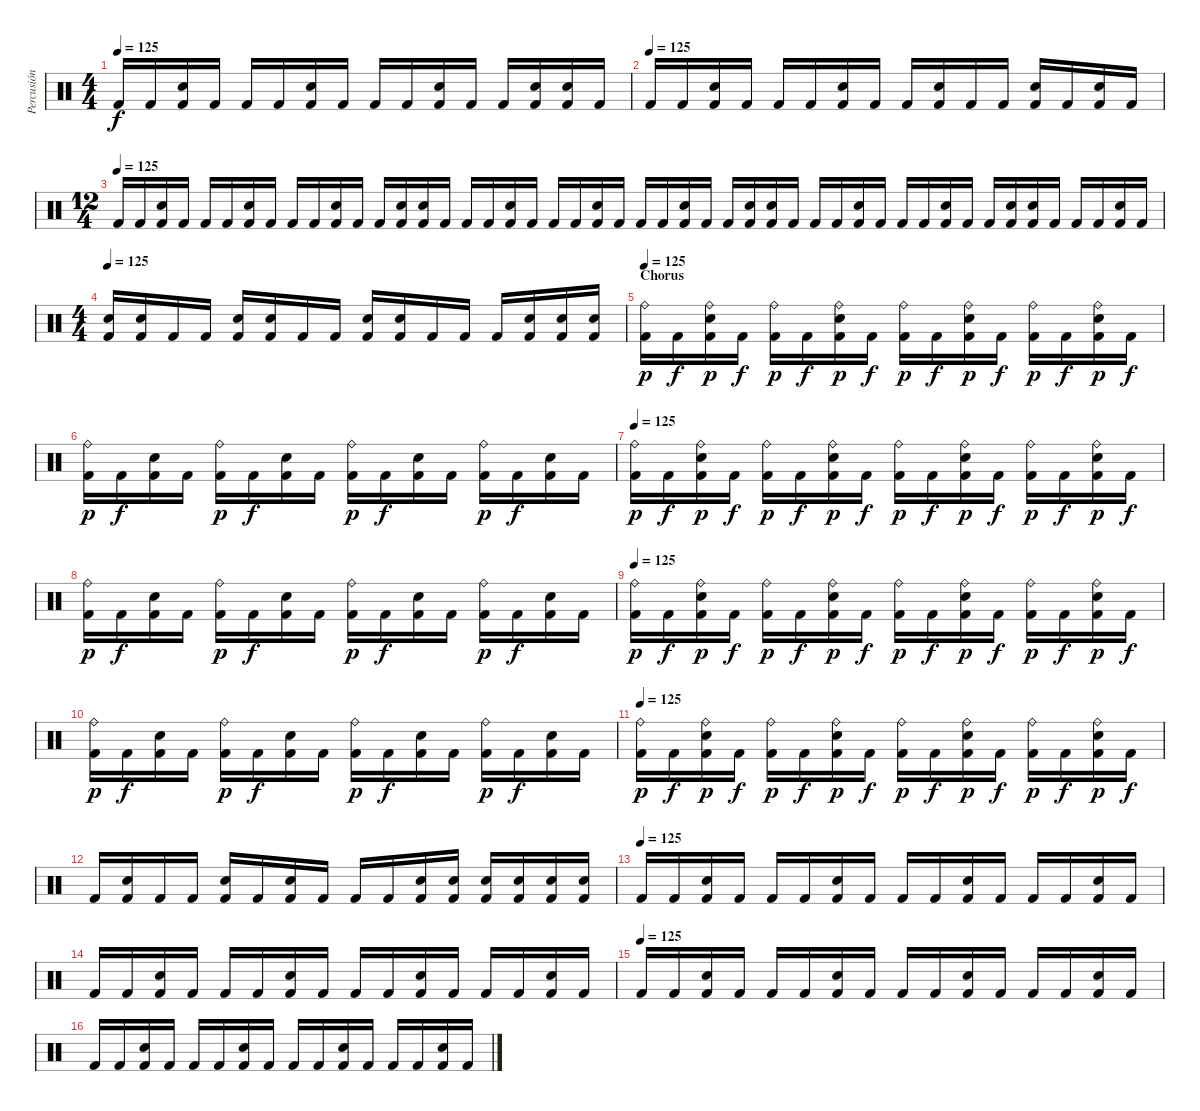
\track ("Percusión" "Percusión") {instrument percussion}
\staff {score}
\articulation defaults
\ts (4 4)
\tempo 125
\clef neutral
\ks c "Kick (hit) 2".16{dy f} "Kick (hit) 2".16
("Electric Snare (hit)" "Kick (hit) 2").16 "Kick (hit) 2".16 "Kick (hit) 2".16 "Kick (hit) 2".16 ("Electric Snare (hit)" "Kick (hit) 2").16 "Kick (hit) 2".16 "Kick (hit) 2".16 "Kick (hit) 2".16 ("Electric Snare (hit)" "Kick (hit) 2").16 "Kick (hit) 2".16 "Kick (hit) 2".16 ("Electric Snare (hit)" "Kick (hit) 2").16 ("Electric Snare (hit)" "Kick (hit) 2").16 "Kick (hit) 2".16 |
\tempo (125)
"Kick (hit) 2".16 "Kick (hit) 2".16 ("Electric Snare (hit)" "Kick (hit) 2").16 "Kick (hit) 2".16 "Kick (hit) 2".16 "Kick (hit) 2".16 ("Electric Snare (hit)" "Kick (hit) 2").16 "Kick (hit) 2".16 "Kick (hit) 2".16 ("Electric Snare (hit)" "Kick (hit) 2").16 "Kick (hit) 2".16 "Kick (hit) 2".16 ("Electric Snare (hit)" "Kick (hit) 2").16 "Kick (hit) 2".16 ("Electric Snare (hit)" "Kick (hit) 2").16 "Kick (hit) 2".16 |
\ts (12 4)
\tempo (125)
"Kick (hit) 2".16 "Kick (hit) 2".16 ("Electric Snare (hit)" "Kick (hit) 2").16 "Kick (hit) 2".16 "Kick (hit) 2".16 "Kick (hit) 2".16 ("Electric Snare (hit)" "Kick (hit) 2").16 "Kick (hit) 2".16 "Kick (hit) 2".16 "Kick (hit) 2".16 ("Electric Snare (hit)" "Kick (hit) 2").16 "Kick (hit) 2".16 "Kick (hit) 2".16 ("Electric Snare (hit)" "Kick (hit) 2").16 ("Electric Snare (hit)" "Kick (hit) 2").16 "Kick (hit) 2".16 "Kick (hit) 2".16 "Kick (hit) 2".16 ("Electric Snare (hit)" "Kick (hit) 2").16 "Kick (hit) 2".16 "Kick (hit) 2".16 "Kick (hit) 2".16 ("Electric Snare (hit)" "Kick (hit) 2").16 "Kick (hit) 2".16 "Kick (hit) 2".16 "Kick (hit) 2".16 ("Electric Snare (hit)" "Kick (hit) 2").16 "Kick (hit) 2".16 "Kick (hit) 2".16 ("Electric Snare (hit)" "Kick (hit) 2").16 ("Electric Snare (hit)" "Kick (hit) 2").16 "Kick (hit) 2".16 "Kick (hit) 2".16 "Kick (hit) 2".16 ("Electric Snare (hit)" "Kick (hit) 2").16 "Kick (hit) 2".16 "Kick (hit) 2".16 "Kick (hit) 2".16 ("Electric Snare (hit)" "Kick (hit) 2").16 "Kick (hit) 2".16 "Kick (hit) 2".16 ("Electric Snare (hit)" "Kick (hit) 2").16 ("Electric Snare (hit)" "Kick (hit) 2").16 "Kick (hit) 2".16 "Kick (hit) 2".16 "Kick (hit) 2".16 ("Electric Snare (hit)" "Kick (hit) 2").16 "Kick (hit) 2".16 |
\ts (4 4)
\tempo 125
("Electric Snare (hit)" "Kick (hit) 2").16 ("Electric Snare (hit)" "Kick (hit) 2").16 "Kick (hit) 2".16 "Kick (hit) 2".16 ("Electric Snare (hit)" "Kick (hit) 2").16 ("Electric Snare (hit)" "Kick (hit) 2").16 "Kick (hit) 2".16 "Kick (hit) 2".16 ("Electric Snare (hit)" "Kick (hit) 2").16 ("Electric Snare (hit)" "Kick (hit) 2").16 "Kick (hit) 2".16 "Kick (hit) 2".16 "Kick (hit) 2".16 ("Electric Snare (hit)" "Kick (hit) 2").16 ("Electric Snare (hit)" "Kick (hit) 2").16 ("Electric Snare (hit)" "Kick (hit) 2").16 |
\section ("" "Chorus")
\tempo 125
("Ride (bell)" "Kick (hit) 2").16{dy p} "Kick (hit) 2".16{dy f} ("Ride (bell)" "Electric Snare (hit)" "Kick (hit) 2").16{dy p} "Kick (hit) 2".16{dy f} ("Ride (bell)" "Kick (hit) 2").16{dy p} "Kick (hit) 2".16{dy f} ("Ride (bell)" "Electric Snare (hit)" "Kick (hit) 2").16{dy p} "Kick (hit) 2".16{dy f} ("Ride (bell)" "Kick (hit) 2").16{dy p} "Kick (hit) 2".16{dy f} ("Ride (bell)" "Electric Snare (hit)" "Kick (hit) 2").16{dy p} "Kick (hit) 2".16{dy f} ("Ride (bell)" "Kick (hit) 2").16{dy p} "Kick (hit) 2".16{dy f} ("Ride (bell)" "Electric Snare (hit)" "Kick (hit) 2").16{dy p} "Kick (hit) 2".16{dy f} |
("Ride (bell)" "Kick (hit) 2").16{dy p} "Kick (hit) 2".16{dy f} ("Electric Snare (hit)" "Kick (hit) 2").16 "Kick (hit) 2".16 ("Ride (bell)" "Kick (hit) 2").16{dy p} "Kick (hit) 2".16{dy f} ("Electric Snare (hit)" "Kick (hit) 2").16 "Kick (hit) 2".16 ("Ride (bell)" "Kick (hit) 2").16{dy p} "Kick (hit) 2".16{dy f} ("Electric Snare (hit)" "Kick (hit) 2").16 "Kick (hit) 2".16 ("Ride (bell)" "Kick (hit) 2").16{dy p} "Kick (hit) 2".16{dy f} ("Electric Snare (hit)" "Kick (hit) 2").16 "Kick (hit) 2".16 |
\tempo 125
("Ride (bell)" "Kick (hit) 2").16{dy p} "Kick (hit) 2".16{dy f} ("Ride (bell)" "Electric Snare (hit)" "Kick (hit) 2").16{dy p} "Kick (hit) 2".16{dy f} ("Ride (bell)" "Kick (hit) 2").16{dy p} "Kick (hit) 2".16{dy f} ("Ride (bell)" "Electric Snare (hit)" "Kick (hit) 2").16{dy p} "Kick (hit) 2".16{dy f} ("Ride (bell)" "Kick (hit) 2").16{dy p} "Kick (hit) 2".16{dy f} ("Ride (bell)" "Electric Snare (hit)" "Kick (hit) 2").16{dy p} "Kick (hit) 2".16{dy f} ("Ride (bell)" "Kick (hit) 2").16{dy p} "Kick (hit) 2".16{dy f} ("Ride (bell)" "Electric Snare (hit)" "Kick (hit) 2").16{dy p} "Kick (hit) 2".16{dy f} |
("Ride (bell)" "Kick (hit) 2").16{dy p} "Kick (hit) 2".16{dy f} ("Electric Snare (hit)" "Kick (hit) 2").16 "Kick (hit) 2".16 ("Ride (bell)" "Kick (hit) 2").16{dy p} "Kick (hit) 2".16{dy f} ("Electric Snare (hit)" "Kick (hit) 2").16 "Kick (hit) 2".16 ("Ride (bell)" "Kick (hit) 2").16{dy p} "Kick (hit) 2".16{dy f} ("Electric Snare (hit)" "Kick (hit) 2").16 "Kick (hit) 2".16 ("Ride (bell)" "Kick (hit) 2").16{dy p} "Kick (hit) 2".16{dy f} ("Electric Snare (hit)" "Kick (hit) 2").16 "Kick (hit) 2".16 |
\tempo 125
("Ride (bell)" "Kick (hit) 2").16{dy p} "Kick (hit) 2".16{dy f} ("Ride (bell)" "Electric Snare (hit)" "Kick (hit) 2").16{dy p} "Kick (hit) 2".16{dy f} ("Ride (bell)" "Kick (hit) 2").16{dy p} "Kick (hit) 2".16{dy f} ("Ride (bell)" "Electric Snare (hit)" "Kick (hit) 2").16{dy p} "Kick (hit) 2".16{dy f} ("Ride (bell)" "Kick (hit) 2").16{dy p} "Kick (hit) 2".16{dy f} ("Ride (bell)" "Electric Snare (hit)" "Kick (hit) 2").16{dy p} "Kick (hit) 2".16{dy f} ("Ride (bell)" "Kick (hit) 2").16{dy p} "Kick (hit) 2".16{dy f} ("Ride (bell)" "Electric Snare (hit)" "Kick (hit) 2").16{dy p} "Kick (hit) 2".16{dy f} |
("Ride (bell)" "Kick (hit) 2").16{dy p} "Kick (hit) 2".16{dy f} ("Electric Snare (hit)" "Kick (hit) 2").16 "Kick (hit) 2".16 ("Ride (bell)" "Kick (hit) 2").16{dy p} "Kick (hit) 2".16{dy f} ("Electric Snare (hit)" "Kick (hit) 2").16 "Kick (hit) 2".16 ("Ride (bell)" "Kick (hit) 2").16{dy p} "Kick (hit) 2".16{dy f} ("Electric Snare (hit)" "Kick (hit) 2").16 "Kick (hit) 2".16 ("Ride (bell)" "Kick (hit) 2").16{dy p} "Kick (hit) 2".16{dy f} ("Electric Snare (hit)" "Kick (hit) 2").16 "Kick (hit) 2".16 |
\tempo 125
("Ride (bell)" "Kick (hit) 2").16{dy p} "Kick (hit) 2".16{dy f} ("Ride (bell)" "Electric Snare (hit)" "Kick (hit) 2").16{dy p} "Kick (hit) 2".16{dy f} ("Ride (bell)" "Kick (hit) 2").16{dy p} "Kick (hit) 2".16{dy f} ("Ride (bell)" "Electric Snare (hit)" "Kick (hit) 2").16{dy p} "Kick (hit) 2".16{dy f} ("Ride (bell)" "Kick (hit) 2").16{dy p} "Kick (hit) 2".16{dy f} ("Ride (bell)" "Electric Snare (hit)" "Kick (hit) 2").16{dy p} "Kick (hit) 2".16{dy f} ("Ride (bell)" "Kick (hit) 2").16{dy p} "Kick (hit) 2".16{dy f} ("Ride (bell)" "Electric Snare (hit)" "Kick (hit) 2").16{dy p} "Kick (hit) 2".16{dy f} |
"Kick (hit) 2".16 ("Electric Snare (hit)" "Kick (hit) 2").16 "Kick (hit) 2".16 "Kick (hit) 2".16 ("Electric Snare (hit)" "Kick (hit) 2").16 "Kick (hit) 2".16 ("Electric Snare (hit)" "Kick (hit) 2").16 "Kick (hit) 2".16 "Kick (hit) 2".16 "Kick (hit) 2".16 ("Electric Snare (hit)" "Kick (hit) 2").16 ("Electric Snare (hit)" "Kick (hit) 2").16 ("Electric Snare (hit)" "Kick (hit) 2").16 ("Electric Snare (hit)" "Kick (hit) 2").16 ("Electric Snare (hit)" "Kick (hit) 2").16 ("Electric Snare (hit)" "Kick (hit) 2").16 |
\tempo (125)
"Kick (hit) 2".16 "Kick (hit) 2".16 ("Electric Snare (hit)" "Kick (hit) 2").16 "Kick (hit) 2".16 "Kick (hit) 2".16 "Kick (hit) 2".16 ("Electric Snare (hit)" "Kick (hit) 2").16 "Kick (hit) 2".16 "Kick (hit) 2".16 "Kick (hit) 2".16 ("Electric Snare (hit)" "Kick (hit) 2").16 "Kick (hit) 2".16 "Kick (hit) 2".16 "Kick (hit) 2".16 ("Electric Snare (hit)" "Kick (hit) 2").16 "Kick (hit) 2".16 |
"Kick (hit) 2".16 "Kick (hit) 2".16 ("Electric Snare (hit)" "Kick (hit) 2").16 "Kick (hit) 2".16 "Kick (hit) 2".16 "Kick (hit) 2".16 ("Electric Snare (hit)" "Kick (hit) 2").16 "Kick (hit) 2".16 "Kick (hit) 2".16 "Kick (hit) 2".16 ("Electric Snare (hit)" "Kick (hit) 2").16 "Kick (hit) 2".16 "Kick (hit) 2".16 "Kick (hit) 2".16 ("Electric Snare (hit)" "Kick (hit) 2").16 "Kick (hit) 2".16 |
\tempo (125)
"Kick (hit) 2".16 "Kick (hit) 2".16 ("Electric Snare (hit)" "Kick (hit) 2").16 "Kick (hit) 2".16 "Kick (hit) 2".16 "Kick (hit) 2".16 ("Electric Snare (hit)" "Kick (hit) 2").16 "Kick (hit) 2".16 "Kick (hit) 2".16 "Kick (hit) 2".16 ("Electric Snare (hit)" "Kick (hit) 2").16 "Kick (hit) 2".16 "Kick (hit) 2".16 "Kick (hit) 2".16 ("Electric Snare (hit)" "Kick (hit) 2").16 "Kick (hit) 2".16 |
"Kick (hit) 2".16 "Kick (hit) 2".16 ("Electric Snare (hit)" "Kick (hit) 2").16 "Kick (hit) 2".16 "Kick (hit) 2".16 "Kick (hit) 2".16 ("Electric Snare (hit)" "Kick (hit) 2").16 "Kick (hit) 2".16 "Kick (hit) 2".16 "Kick (hit) 2".16 ("Electric Snare (hit)" "Kick (hit) 2").16 "Kick (hit) 2".16 "Kick (hit) 2".16 "Kick (hit) 2".16 ("Electric Snare (hit)" "Kick (hit) 2").16 "Kick (hit) 2".16
